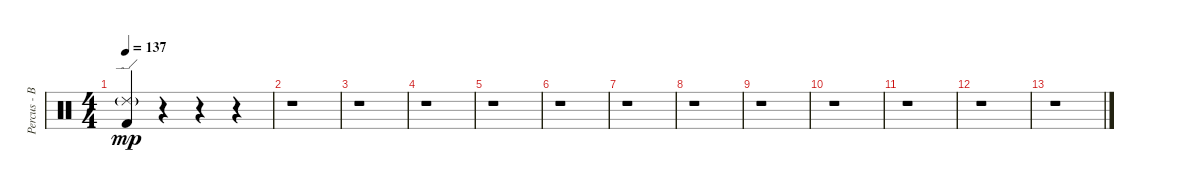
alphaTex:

\track ("Percus - Brice" "Percus - B") {instrument percussion}
\staff {score}
\articulation defaults
\ts (4 4)
\tempo 137
\clef neutral
\ks c
("Ride (edge) 2"{g} "Kick (hit) 2").4{dy mp} r.4 r.4 r.4 |
r.1 |
r.1 |
r.1 |
r.1 |
r.1 |
r.1 |
r.1 |
r.1 |
r.1 |
r.1 |
r.1 |
r.1
